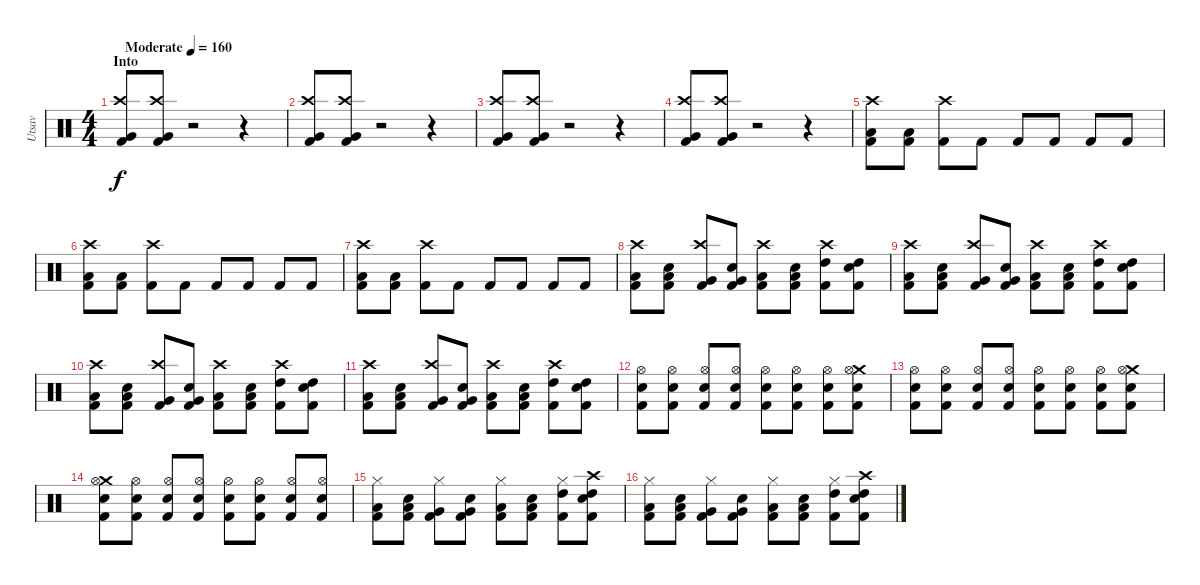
\track ("Utsav" "Utsav") {instrument percussion}
\staff {score}
\articulation defaults
\ts (4 4)
\section ("" "Into")
\tempo (160 "Moderate")
\clef neutral
\ks c
("Very Low Tom (hit)" "Crash high (hit)" "Kick (hit) 2").8{dy f} ("Very Low Tom (hit)" "Crash high (hit)" "Kick (hit) 2").8 r.2 r.4 |
("Very Low Tom (hit)" "Crash high (hit)" "Kick (hit) 2").8 ("Very Low Tom (hit)" "Crash high (hit)" "Kick (hit) 2").8 r.2 r.4 |
("Very Low Tom (hit)" "Crash high (hit)" "Kick (hit) 2").8 ("Very Low Tom (hit)" "Crash high (hit)" "Kick (hit) 2").8 r.2 r.4 |
("Very Low Tom (hit)" "Crash high (hit)" "Kick (hit) 2").8 ("Very Low Tom (hit)" "Crash high (hit)" "Kick (hit) 2").8 r.2 r.4 |
("Low Tom (hit)" "Crash high (hit)" "Kick (hit) 2").8 ("Low Tom (hit)" "Kick (hit) 2").8 ("Crash high (hit)" "Kick (hit) 2").8 "Kick (hit) 2".8 "Kick (hit) 2".8 "Kick (hit) 2".8 "Kick (hit) 2".8 "Kick (hit) 2".8 |
("Low Tom (hit)" "Crash high (hit)" "Kick (hit) 2").8 ("Low Tom (hit)" "Kick (hit) 2").8 ("Crash high (hit)" "Kick (hit) 2").8 "Kick (hit) 2".8 "Kick (hit) 2".8 "Kick (hit) 2".8 "Kick (hit) 2".8 "Kick (hit) 2".8 |
("Low Tom (hit)" "Crash high (hit)" "Kick (hit) 2").8 ("Low Tom (hit)" "Kick (hit) 2").8 ("Crash high (hit)" "Kick (hit) 2").8 "Kick (hit) 2".8 "Kick (hit) 2".8 "Kick (hit) 2".8 "Kick (hit) 2".8 "Kick (hit) 2".8 |
("Low Tom (hit)" "Crash high (hit)" "Kick (hit) 2").8 ("Low Tom (hit)" "Snare (hit) 2" "Kick (hit) 2").8 ("Very Low Tom (hit)" "Crash high (hit)" "Kick (hit) 2").8 ("Very Low Tom (hit)" "Snare (hit) 2" "Kick (hit) 2").8 ("Low Floor Tom (hit)" "Crash high (hit)" "Kick (hit) 2").8 ("Low Floor Tom (hit)" "Snare (hit) 2" "Kick (hit) 2").8 ("High Tom (hit)" "Crash high (hit)" "Kick (hit) 2").8 ("High Tom (hit)" "Snare (hit) 2" "Kick (hit) 2").8 |
("Low Tom (hit)" "Crash high (hit)" "Kick (hit) 2").8 ("Low Tom (hit)" "Snare (hit) 2" "Kick (hit) 2").8 ("Very Low Tom (hit)" "Crash high (hit)" "Kick (hit) 2").8 ("Very Low Tom (hit)" "Snare (hit) 2" "Kick (hit) 2").8 ("Low Floor Tom (hit)" "Crash high (hit)" "Kick (hit) 2").8 ("Low Floor Tom (hit)" "Snare (hit) 2" "Kick (hit) 2").8 ("High Tom (hit)" "Crash high (hit)" "Kick (hit) 2").8 ("High Tom (hit)" "Snare (hit) 2" "Kick (hit) 2").8 |
("Low Tom (hit)" "Crash high (hit)" "Kick (hit) 2").8 ("Low Tom (hit)" "Snare (hit) 2" "Kick (hit) 2").8 ("Very Low Tom (hit)" "Crash high (hit)" "Kick (hit) 2").8 ("Very Low Tom (hit)" "Snare (hit) 2" "Kick (hit) 2").8 ("Low Floor Tom (hit)" "Crash high (hit)" "Kick (hit) 2").8 ("Low Floor Tom (hit)" "Snare (hit) 2" "Kick (hit) 2").8 ("High Tom (hit)" "Crash high (hit)" "Kick (hit) 2").8 ("High Tom (hit)" "Snare (hit) 2" "Kick (hit) 2").8 |
("Low Tom (hit)" "Crash high (hit)" "Kick (hit) 2").8 ("Low Tom (hit)" "Snare (hit) 2" "Kick (hit) 2").8 ("Very Low Tom (hit)" "Crash high (hit)" "Kick (hit) 2").8 ("Very Low Tom (hit)" "Snare (hit) 2" "Kick (hit) 2").8 ("Low Floor Tom (hit)" "Crash high (hit)" "Kick (hit) 2").8 ("Low Floor Tom (hit)" "Snare (hit) 2" "Kick (hit) 2").8 ("High Tom (hit)" "Crash high (hit)" "Kick (hit) 2").8 ("High Tom (hit)" "Snare (hit) 2" "Kick (hit) 2").8 |
("Snare (hit) 2" "Hi-Hat (open)" "Kick (hit) 2").8 ("Snare (hit) 2" "Hi-Hat (open)" "Kick (hit) 2").8 ("Electric Snare (hit)" "Hi-Hat (open)" "Kick (hit) 2").8 ("Electric Snare (hit)" "Hi-Hat (open)" "Kick (hit) 2").8 ("Snare (hit) 2" "Hi-Hat (open)" "Kick (hit) 2").8 ("Snare (hit) 2" "Hi-Hat (open)" "Kick (hit) 2").8 ("Electric Snare (hit)" "Hi-Hat (open)" "Kick (hit) 2").8 ("Crash medium (hit)" "Electric Snare (hit)" "Hi-Hat (open)" "Kick (hit) 2").8 |
("Snare (hit) 2" "Hi-Hat (open)" "Kick (hit) 2").8 ("Snare (hit) 2" "Hi-Hat (open)" "Kick (hit) 2").8 ("Electric Snare (hit)" "Hi-Hat (open)" "Kick (hit) 2").8 ("Electric Snare (hit)" "Hi-Hat (open)" "Kick (hit) 2").8 ("Snare (hit) 2" "Hi-Hat (open)" "Kick (hit) 2").8 ("Snare (hit) 2" "Hi-Hat (open)" "Kick (hit) 2").8 ("Electric Snare (hit)" "Hi-Hat (open)" "Kick (hit) 2").8 ("Crash medium (hit)" "Electric Snare (hit)" "Hi-Hat (open)" "Kick (hit) 2").8 |
("Crash medium (hit)" "Snare (hit) 2" "Hi-Hat (open)" "Kick (hit) 2").8 ("Snare (hit) 2" "Hi-Hat (open)" "Kick (hit) 2").8 ("Electric Snare (hit)" "Hi-Hat (open)" "Kick (hit) 2").8 ("Electric Snare (hit)" "Hi-Hat (open)" "Kick (hit) 2").8 ("Snare (hit) 2" "Hi-Hat (open)" "Kick (hit) 2").8 ("Snare (hit) 2" "Hi-Hat (open)" "Kick (hit) 2").8 ("Electric Snare (hit)" "Hi-Hat (open)" "Kick (hit) 2").8 ("Electric Snare (hit)" "Hi-Hat (open)" "Kick (hit) 2").8 |
("Low Tom (hit)" "Hi-Hat (closed)" "Kick (hit) 2").8 ("Low Tom (hit)" "Snare (hit) 2" "Kick (hit) 2").8 ("Very Low Tom (hit)" "Hi-Hat (closed)" "Kick (hit) 2").8 ("Very Low Tom (hit)" "Snare (hit) 2" "Kick (hit) 2").8 ("Low Floor Tom (hit)" "Hi-Hat (closed)" "Kick (hit) 2").8 ("Low Floor Tom (hit)" "Snare (hit) 2" "Kick (hit) 2").8 ("High Tom (hit)" "Hi-Hat (closed)" "Kick (hit) 2").8 ("High Tom (hit)" "Crash high (hit)" "Snare (hit) 2" "Kick (hit) 2").8 |
("Low Tom (hit)" "Hi-Hat (closed)" "Kick (hit) 2").8 ("Low Tom (hit)" "Snare (hit) 2" "Kick (hit) 2").8 ("Very Low Tom (hit)" "Hi-Hat (closed)" "Kick (hit) 2").8 ("Very Low Tom (hit)" "Snare (hit) 2" "Kick (hit) 2").8 ("Low Floor Tom (hit)" "Hi-Hat (closed)" "Kick (hit) 2").8 ("Low Floor Tom (hit)" "Snare (hit) 2" "Kick (hit) 2").8 ("High Tom (hit)" "Hi-Hat (closed)" "Kick (hit) 2").8 ("High Tom (hit)" "Crash high (hit)" "Snare (hit) 2" "Kick (hit) 2").8
